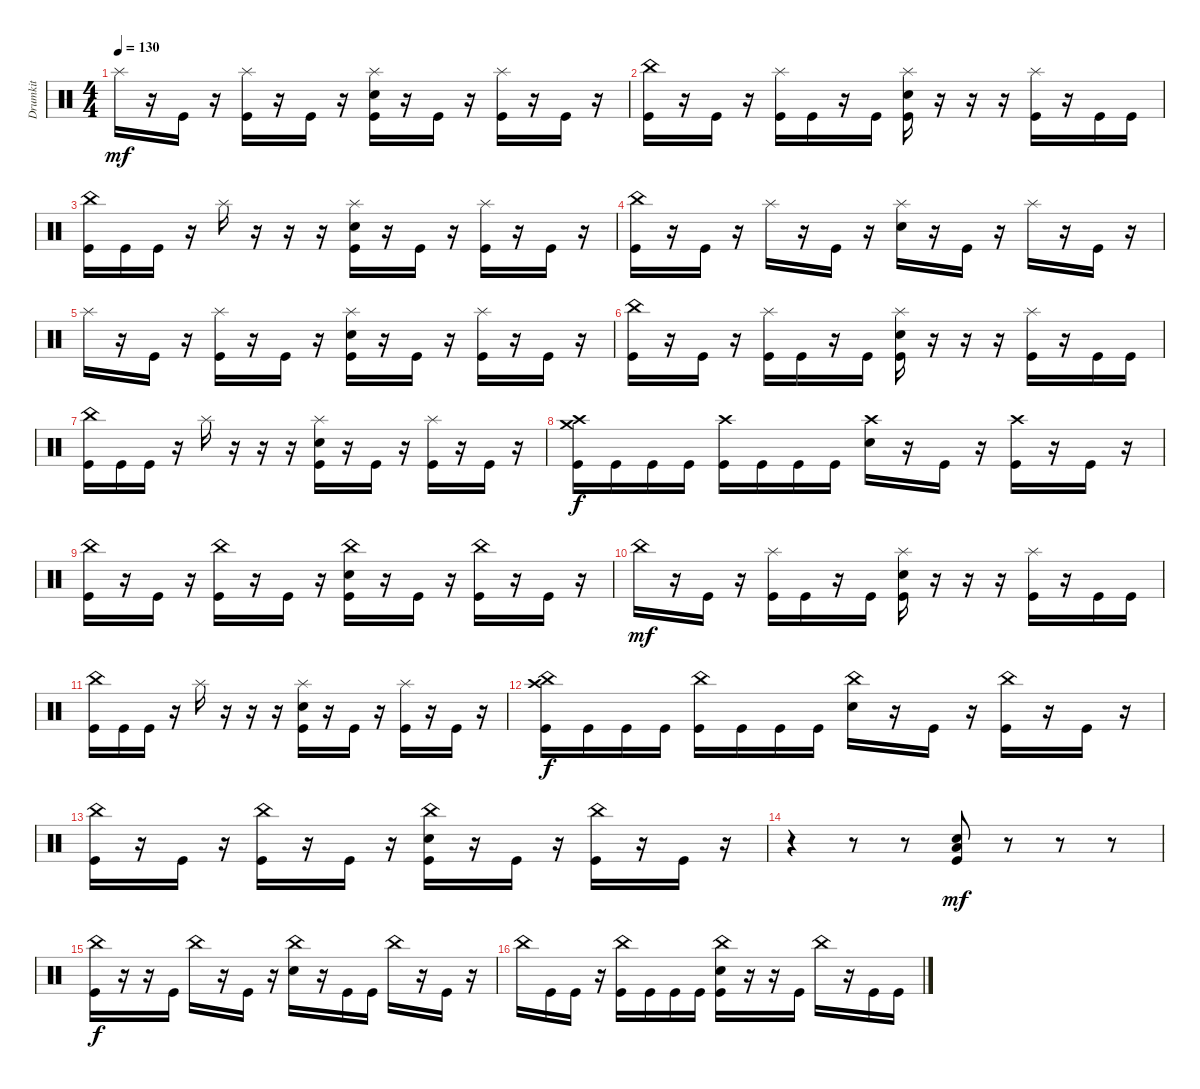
\track ("Drumkit" "Drumkit") {instrument percussion}
\staff {score}
\articulation defaults
\ts (4 4)
\tempo 130
\clef neutral
\ks c "Splash (hit)".16{dy mf}
r.16 "Kick (hit)".16 r.16 ("Splash (hit)" "Kick (hit)").16 r.16 "Kick (hit)".16 r.16 ("Splash (hit)" "Kick (hit)" "Snare (hit) 2").16 r.16 "Kick (hit)".16 r.16 ("Splash (hit)" "Kick (hit)").16 r.16 "Kick (hit)".16 r.16 |
("China (hit)" "Kick (hit)").16 r.16 "Kick (hit)".16 r.16 ("Splash (hit)" "Kick (hit)").16 "Kick (hit)".16 r.16 "Kick (hit)".16 ("Splash (hit)" "Snare (hit) 2" "Kick (hit)").16 r.16 r.16 r.16 ("Splash (hit)" "Kick (hit)").16 r.16 "Kick (hit)".16 "Kick (hit)".16 |
("China (hit)" "Kick (hit)").16 "Kick (hit)".16 "Kick (hit)".16 r.16 "Splash (hit)".16 r.16 r.16 r.16 ("Splash (hit)" "Snare (hit) 2" "Kick (hit)").16 r.16 "Kick (hit)".16 r.16 ("Splash (hit)" "Kick (hit)").16 r.16 "Kick (hit)".16 r.16 |
("China (hit)" "Kick (hit)").16 r.16 "Kick (hit)".16 r.16 "Splash (hit)".16 r.16 "Kick (hit)".16 r.16 ("Splash (hit)" "Snare (hit) 2").16 r.16 "Kick (hit)".16 r.16 "Splash (hit)".16 r.16 "Kick (hit)".16 r.16 |
"Splash (hit)".16 r.16 "Kick (hit)".16 r.16 ("Splash (hit)" "Kick (hit)").16 r.16 "Kick (hit)".16 r.16 ("Splash (hit)" "Kick (hit)" "Snare (hit) 2").16 r.16 "Kick (hit)".16 r.16 ("Splash (hit)" "Kick (hit)").16 r.16 "Kick (hit)".16 r.16 |
("China (hit)" "Kick (hit)").16 r.16 "Kick (hit)".16 r.16 ("Splash (hit)" "Kick (hit)").16 "Kick (hit)".16 r.16 "Kick (hit)".16 ("Splash (hit)" "Snare (hit) 2" "Kick (hit)").16 r.16 r.16 r.16 ("Splash (hit)" "Kick (hit)").16 r.16 "Kick (hit)".16 "Kick (hit)".16 |
("China (hit)" "Kick (hit)").16 "Kick (hit)".16 "Kick (hit)".16 r.16 "Splash (hit)".16 r.16 r.16 r.16 ("Splash (hit)" "Snare (hit) 2" "Kick (hit)").16 r.16 "Kick (hit)".16 r.16 ("Splash (hit)" "Kick (hit)").16 r.16 "Kick (hit)".16 r.16 |
("Crash medium (hit)" "Crash high (hit)" "Kick (hit)").16{dy f} "Kick (hit)".16 "Kick (hit)".16 "Kick (hit)".16 ("Crash high (hit)" "Kick (hit)").16 "Kick (hit)".16 "Kick (hit)".16 "Kick (hit)".16 ("Crash high (hit)" "Snare (hit) 2").16 r.16 "Kick (hit)".16 r.16 ("Crash high (hit)" "Kick (hit)").16 r.16 "Kick (hit)".16 r.16 |
("China (hit)" "Kick (hit)").16 r.16 "Kick (hit)".16 r.16 ("China (hit)" "Kick (hit)").16 r.16 "Kick (hit)".16 r.16 ("China (hit)" "Snare (hit) 2" "Kick (hit)").16 r.16 "Kick (hit)".16 r.16 ("China (hit)" "Kick (hit)").16 r.16 "Kick (hit)".16 r.16 |
"China (hit)".16{dy mf} r.16 "Kick (hit)".16 r.16 ("Splash (hit)" "Kick (hit)").16 "Kick (hit)".16 r.16 "Kick (hit)".16 ("Splash (hit)" "Snare (hit) 2" "Kick (hit)").16 r.16 r.16 r.16 ("Splash (hit)" "Kick (hit)").16 r.16 "Kick (hit)".16 "Kick (hit)".16 |
("China (hit)" "Kick (hit)").16 "Kick (hit)".16 "Kick (hit)".16 r.16 "Splash (hit)".16 r.16 r.16 r.16 ("Splash (hit)" "Snare (hit) 2" "Kick (hit)").16 r.16 "Kick (hit)".16 r.16 ("Splash (hit)" "Kick (hit)").16 r.16 "Kick (hit)".16 r.16 |
("China (hit)" "Crash high (hit)" "Kick (hit)").16{dy f} "Kick (hit)".16 "Kick (hit)".16 "Kick (hit)".16 ("China (hit)" "Kick (hit)").16 "Kick (hit)".16 "Kick (hit)".16 "Kick (hit)".16 ("China (hit)" "Snare (hit) 2").16 r.16 "Kick (hit)".16 r.16 ("China (hit)" "Kick (hit)").16 r.16 "Kick (hit)".16 r.16 |
("China (hit)" "Kick (hit)").16 r.16 "Kick (hit)".16 r.16 ("China (hit)" "Kick (hit)").16 r.16 "Kick (hit)".16 r.16 ("China (hit)" "Snare (hit) 2" "Kick (hit)").16 r.16 "Kick (hit)".16 r.16 ("China (hit)" "Kick (hit)").16 r.16 "Kick (hit)".16 r.16 |
r.4 r.8 r.8 ("Snare (hit) 2" "Low Floor Tom (hit)" "Kick (hit)").8{dy mf} r.8 r.8 r.8 |
("China (hit)" "Kick (hit)").16{dy f} r.16 r.16 "Kick (hit)".16 "China (hit)".16 r.16 "Kick (hit)".16 r.16 ("China (hit)" "Snare (hit) 2").16 r.16 "Kick (hit)".16 "Kick (hit)".16 "China (hit)".16 r.16 "Kick (hit)".16 r.16 |
"China (hit)".16 "Kick (hit)".16 "Kick (hit)".16 r.16 ("China (hit)" "Kick (hit)").16 "Kick (hit)".16 "Kick (hit)".16 "Kick (hit)".16 ("China (hit)" "Snare (hit) 2" "Kick (hit)").16 r.16 r.16 "Kick (hit)".16 "China (hit)".16 r.16 "Kick (hit)".16 "Kick (hit)".16
